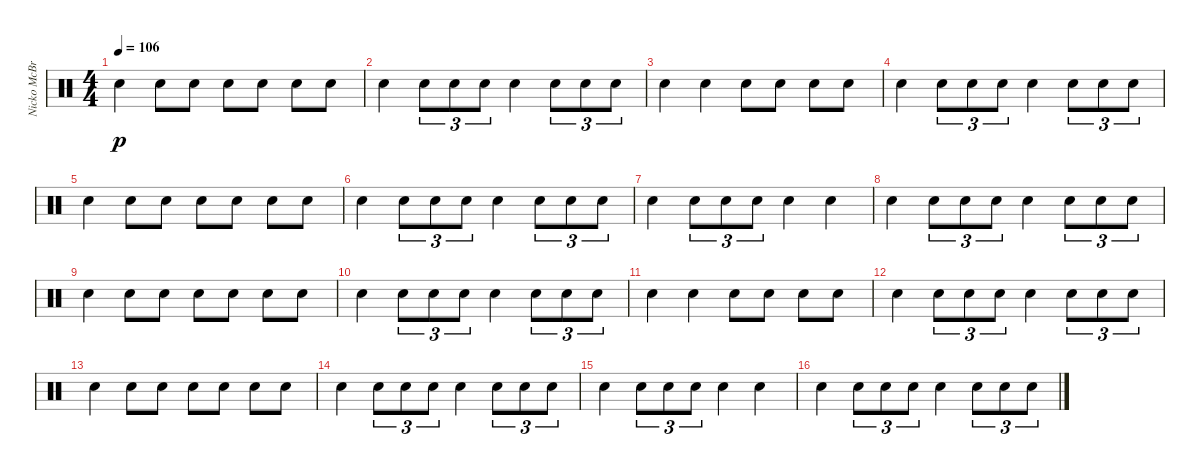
\track ("Nicko McBrain" "Nicko McBr") {instrument percussion}
\staff {score}
\articulation defaults
\ts (4 4)
\tempo 106
\clef neutral
\ks c "Snare (hit) 2".4{dy p} "Snare (hit) 2".8 "Snare (hit) 2".8 "Snare (hit) 2".8 "Snare (hit) 2".8 "Snare (hit) 2".8 "Snare (hit) 2".8
|
"Snare (hit) 2".4 "Snare (hit) 2".8{tu (3 2)} "Snare (hit) 2".8{tu (3 2)} "Snare (hit) 2".8{tu (3 2)} "Snare (hit) 2".4 "Snare (hit) 2".8{tu (3 2)} "Snare (hit) 2".8{tu (3 2)} "Snare (hit) 2".8{tu (3 2)} |
"Snare (hit) 2".4 "Snare (hit) 2".4 "Snare (hit) 2".8 "Snare (hit) 2".8 "Snare (hit) 2".8 "Snare (hit) 2".8 |
"Snare (hit) 2".4 "Snare (hit) 2".8{tu (3 2)} "Snare (hit) 2".8{tu (3 2)} "Snare (hit) 2".8{tu (3 2)} "Snare (hit) 2".4 "Snare (hit) 2".8{tu (3 2)} "Snare (hit) 2".8{tu (3 2)} "Snare (hit) 2".8{tu (3 2)} |
"Snare (hit) 2".4 "Snare (hit) 2".8 "Snare (hit) 2".8 "Snare (hit) 2".8 "Snare (hit) 2".8 "Snare (hit) 2".8 "Snare (hit) 2".8 |
"Snare (hit) 2".4 "Snare (hit) 2".8{tu (3 2)} "Snare (hit) 2".8{tu (3 2)} "Snare (hit) 2".8{tu (3 2)} "Snare (hit) 2".4 "Snare (hit) 2".8{tu (3 2)} "Snare (hit) 2".8{tu (3 2)} "Snare (hit) 2".8{tu (3 2)} |
"Snare (hit) 2".4 "Snare (hit) 2".8{tu (3 2)} "Snare (hit) 2".8{tu (3 2)} "Snare (hit) 2".8{tu (3 2)} "Snare (hit) 2".4 "Snare (hit) 2".4 |
"Snare (hit) 2".4 "Snare (hit) 2".8{tu (3 2)} "Snare (hit) 2".8{tu (3 2)} "Snare (hit) 2".8{tu (3 2)} "Snare (hit) 2".4 "Snare (hit) 2".8{tu (3 2)} "Snare (hit) 2".8{tu (3 2)} "Snare (hit) 2".8{tu (3 2)} |
"Snare (hit) 2".4 "Snare (hit) 2".8 "Snare (hit) 2".8 "Snare (hit) 2".8 "Snare (hit) 2".8 "Snare (hit) 2".8 "Snare (hit) 2".8 |
"Snare (hit) 2".4 "Snare (hit) 2".8{tu (3 2)} "Snare (hit) 2".8{tu (3 2)} "Snare (hit) 2".8{tu (3 2)} "Snare (hit) 2".4 "Snare (hit) 2".8{tu (3 2)} "Snare (hit) 2".8{tu (3 2)} "Snare (hit) 2".8{tu (3 2)} |
"Snare (hit) 2".4 "Snare (hit) 2".4 "Snare (hit) 2".8 "Snare (hit) 2".8 "Snare (hit) 2".8 "Snare (hit) 2".8 |
"Snare (hit) 2".4 "Snare (hit) 2".8{tu (3 2)} "Snare (hit) 2".8{tu (3 2)} "Snare (hit) 2".8{tu (3 2)} "Snare (hit) 2".4 "Snare (hit) 2".8{tu (3 2)} "Snare (hit) 2".8{tu (3 2)} "Snare (hit) 2".8{tu (3 2)} |
"Snare (hit) 2".4 "Snare (hit) 2".8 "Snare (hit) 2".8 "Snare (hit) 2".8 "Snare (hit) 2".8 "Snare (hit) 2".8 "Snare (hit) 2".8 |
"Snare (hit) 2".4 "Snare (hit) 2".8{tu (3 2)} "Snare (hit) 2".8{tu (3 2)} "Snare (hit) 2".8{tu (3 2)} "Snare (hit) 2".4 "Snare (hit) 2".8{tu (3 2)} "Snare (hit) 2".8{tu (3 2)} "Snare (hit) 2".8{tu (3 2)} |
"Snare (hit) 2".4 "Snare (hit) 2".8{tu (3 2)} "Snare (hit) 2".8{tu (3 2)} "Snare (hit) 2".8{tu (3 2)} "Snare (hit) 2".4 "Snare (hit) 2".4 |
"Snare (hit) 2".4 "Snare (hit) 2".8{tu (3 2)} "Snare (hit) 2".8{tu (3 2)} "Snare (hit) 2".8{tu (3 2)} "Snare (hit) 2".4 "Snare (hit) 2".8{tu (3 2)} "Snare (hit) 2".8{tu (3 2)} "Snare (hit) 2".8{tu (3 2)}
